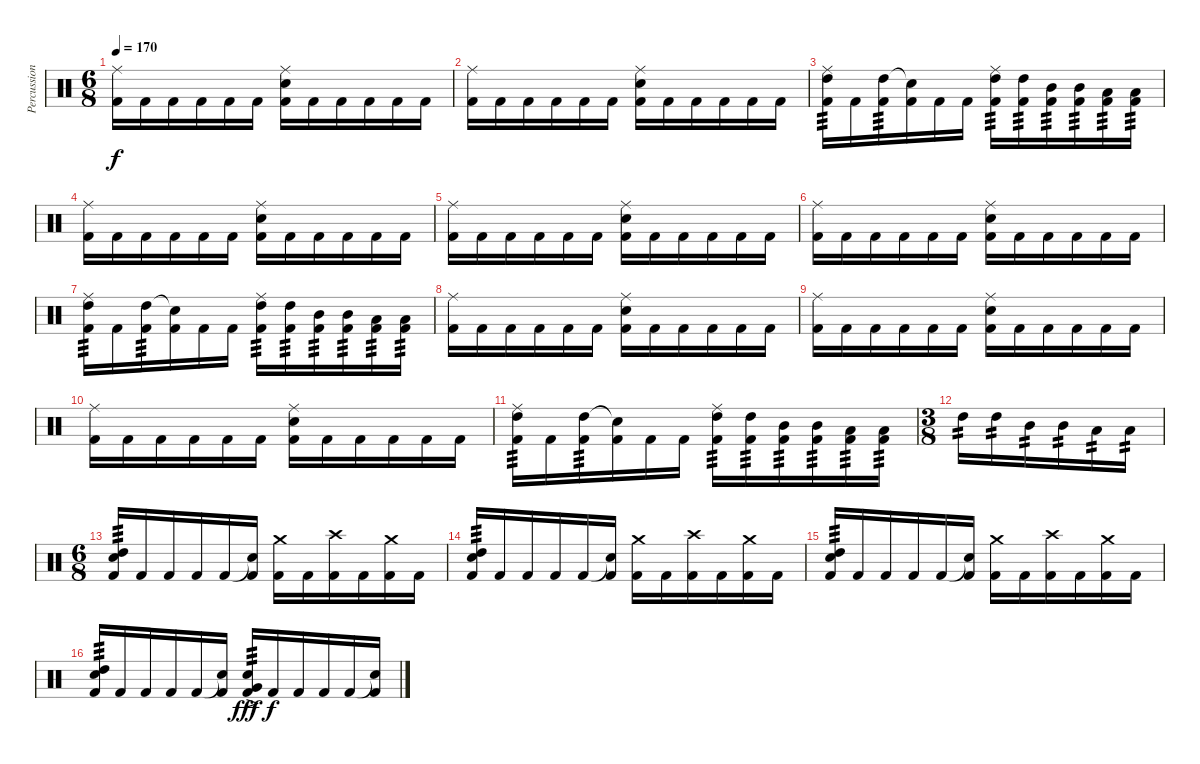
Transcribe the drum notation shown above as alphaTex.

\track ("Percussions" "Percussion") {instrument percussion}
\staff {score}
\articulation defaults
\ts (6 8)
\tempo 170
\clef neutral
\ks c
("Ride (middle)" "Kick (hit) 2").16{dy f} "Kick (hit) 2".16 "Kick (hit) 2".16 "Kick (hit) 2".16 "Kick (hit) 2".16 "Kick (hit) 2".16 ("Snare (hit) 2" "Ride (middle)" "Kick (hit) 2").16 "Kick (hit) 2".16 "Kick (hit) 2".16 "Kick (hit) 2".16 "Kick (hit) 2".16 "Kick (hit) 2".16 |
("Ride (middle)" "Kick (hit) 2").16 "Kick (hit) 2".16 "Kick (hit) 2".16 "Kick (hit) 2".16 "Kick (hit) 2".16 "Kick (hit) 2".16 ("Snare (hit) 2" "Ride (middle)" "Kick (hit) 2").16 "Kick (hit) 2".16 "Kick (hit) 2".16 "Kick (hit) 2".16 "Kick (hit) 2".16 "Kick (hit) 2".16 |
("Ride (middle)" "High Tom (hit)" "Kick (hit) 2").16{tp 3} "Kick (hit) 2".16 ("High Tom (hit)" "Kick (hit) 2").16{tp 3} ("Snare (hit)"{t} "Kick (hit) 2").16 "Kick (hit) 2".16 "Kick (hit) 2".16 ("Ride (middle)" "High Tom (hit)" "Kick (hit) 2").16{tp 3} ("High Tom (hit)" "Kick (hit) 2").16{tp 3} ("Mid Tom (hit)" "Kick (hit) 2").16{tp 3} ("Mid Tom (hit)" "Kick (hit) 2").16{tp 3} ("Low Tom (hit)" "Kick (hit) 2").16{tp 3} ("Low Tom (hit)" "Kick (hit) 2").16{tp 3} |
("Ride (middle)" "Kick (hit) 2").16 "Kick (hit) 2".16 "Kick (hit) 2".16 "Kick (hit) 2".16 "Kick (hit) 2".16 "Kick (hit) 2".16 ("Snare (hit) 2" "Ride (middle)" "Kick (hit) 2").16 "Kick (hit) 2".16 "Kick (hit) 2".16 "Kick (hit) 2".16 "Kick (hit) 2".16 "Kick (hit) 2".16 |
("Ride (middle)" "Kick (hit) 2").16 "Kick (hit) 2".16 "Kick (hit) 2".16 "Kick (hit) 2".16 "Kick (hit) 2".16 "Kick (hit) 2".16 ("Snare (hit) 2" "Ride (middle)" "Kick (hit) 2").16 "Kick (hit) 2".16 "Kick (hit) 2".16 "Kick (hit) 2".16 "Kick (hit) 2".16 "Kick (hit) 2".16 |
("Ride (middle)" "Kick (hit) 2").16 "Kick (hit) 2".16 "Kick (hit) 2".16 "Kick (hit) 2".16 "Kick (hit) 2".16 "Kick (hit) 2".16 ("Snare (hit) 2" "Ride (middle)" "Kick (hit) 2").16 "Kick (hit) 2".16 "Kick (hit) 2".16 "Kick (hit) 2".16 "Kick (hit) 2".16 "Kick (hit) 2".16 |
("Ride (middle)" "High Tom (hit)" "Kick (hit) 2").16{tp 3} "Kick (hit) 2".16 ("High Tom (hit)" "Kick (hit) 2").16{tp 3} ("Snare (hit)"{t} "Kick (hit) 2").16 "Kick (hit) 2".16 "Kick (hit) 2".16 ("Ride (middle)" "High Tom (hit)" "Kick (hit) 2").16{tp 3} ("High Tom (hit)" "Kick (hit) 2").16{tp 3} ("Mid Tom (hit)" "Kick (hit) 2").16{tp 3} ("Mid Tom (hit)" "Kick (hit) 2").16{tp 3} ("Low Tom (hit)" "Kick (hit) 2").16{tp 3} ("Low Tom (hit)" "Kick (hit) 2").16{tp 3} |
("Ride (middle)" "Kick (hit) 2").16 "Kick (hit) 2".16 "Kick (hit) 2".16 "Kick (hit) 2".16 "Kick (hit) 2".16 "Kick (hit) 2".16 ("Snare (hit) 2" "Ride (middle)" "Kick (hit) 2").16 "Kick (hit) 2".16 "Kick (hit) 2".16 "Kick (hit) 2".16 "Kick (hit) 2".16 "Kick (hit) 2".16 |
("Ride (middle)" "Kick (hit) 2").16 "Kick (hit) 2".16 "Kick (hit) 2".16 "Kick (hit) 2".16 "Kick (hit) 2".16 "Kick (hit) 2".16 ("Snare (hit) 2" "Ride (middle)" "Kick (hit) 2").16 "Kick (hit) 2".16 "Kick (hit) 2".16 "Kick (hit) 2".16 "Kick (hit) 2".16 "Kick (hit) 2".16 |
("Ride (middle)" "Kick (hit) 2").16 "Kick (hit) 2".16 "Kick (hit) 2".16 "Kick (hit) 2".16 "Kick (hit) 2".16 "Kick (hit) 2".16 ("Snare (hit) 2" "Ride (middle)" "Kick (hit) 2").16 "Kick (hit) 2".16 "Kick (hit) 2".16 "Kick (hit) 2".16 "Kick (hit) 2".16 "Kick (hit) 2".16 |
("Ride (middle)" "High Tom (hit)" "Kick (hit) 2").16{tp 3} "Kick (hit) 2".16 ("High Tom (hit)" "Kick (hit) 2").16{tp 3} ("Snare (hit)"{t} "Kick (hit) 2").16 "Kick (hit) 2".16 "Kick (hit) 2".16 ("Ride (middle)" "High Tom (hit)" "Kick (hit) 2").16{tp 3} ("High Tom (hit)" "Kick (hit) 2").16{tp 3} ("Mid Tom (hit)" "Kick (hit) 2").16{tp 3} ("Mid Tom (hit)" "Kick (hit) 2").16{tp 3} ("Low Tom (hit)" "Kick (hit) 2").16{tp 3} ("Low Tom (hit)" "Kick (hit) 2").16{tp 3} |
\ts (3 8)
"High Tom (hit)".16{tp 2} "High Tom (hit)".16{tp 2} "Mid Tom (hit)".16{tp 2} "Mid Tom (hit)".16{tp 2} "Low Tom (hit)".16{tp 2} "Low Tom (hit)".16{tp 2} |
\ts (6 8)
("Snare (hit) 2" "High Tom (hit)" "Kick (hit) 2").16{tp 3} "Kick (hit) 2".16 "Kick (hit) 2".16 "Kick (hit) 2".16 "Kick (hit) 2".16 ("Snare (hit)"{t} "Kick (hit) 2").16 ("Crash medium (hit)" "Kick (hit) 2").16 "Kick (hit) 2".16 ("Crash high (hit)" "Kick (hit) 2").16 "Kick (hit) 2".16 ("Crash medium (hit)" "Kick (hit) 2").16 "Kick (hit) 2".16 |
("Snare (hit) 2" "High Tom (hit)" "Kick (hit) 2").16{tp 3} "Kick (hit) 2".16 "Kick (hit) 2".16 "Kick (hit) 2".16 "Kick (hit) 2".16 ("Snare (hit)"{t} "Kick (hit) 2").16 ("Crash medium (hit)" "Kick (hit) 2").16 "Kick (hit) 2".16 ("Crash high (hit)" "Kick (hit) 2").16 "Kick (hit) 2".16 ("Crash medium (hit)" "Kick (hit) 2").16 "Kick (hit) 2".16 |
("Snare (hit) 2" "High Tom (hit)" "Kick (hit) 2").16{tp 3} "Kick (hit) 2".16 "Kick (hit) 2".16 "Kick (hit) 2".16 "Kick (hit) 2".16 ("Snare (hit)"{t} "Kick (hit) 2").16 ("Crash medium (hit)" "Kick (hit) 2").16 "Kick (hit) 2".16 ("Crash high (hit)" "Kick (hit) 2").16 "Kick (hit) 2".16 ("Crash medium (hit)" "Kick (hit) 2").16 "Kick (hit) 2".16 |
("Snare (hit) 2" "High Tom (hit)" "Kick (hit) 2").16{tp 3} "Kick (hit) 2".16 "Kick (hit) 2".16 "Kick (hit) 2".16 "Kick (hit) 2".16 ("Snare (hit)"{t} "Kick (hit) 2").16 ("Snare (hit) 2" "Very Low Tom (hit)"{ac} "Kick (hit) 2").16{tp 3 dy fff} "Kick (hit) 2".16{dy f} "Kick (hit) 2".16 "Kick (hit) 2".16 "Kick (hit) 2".16 ("Snare (hit)"{t} "Kick (hit) 2").16
